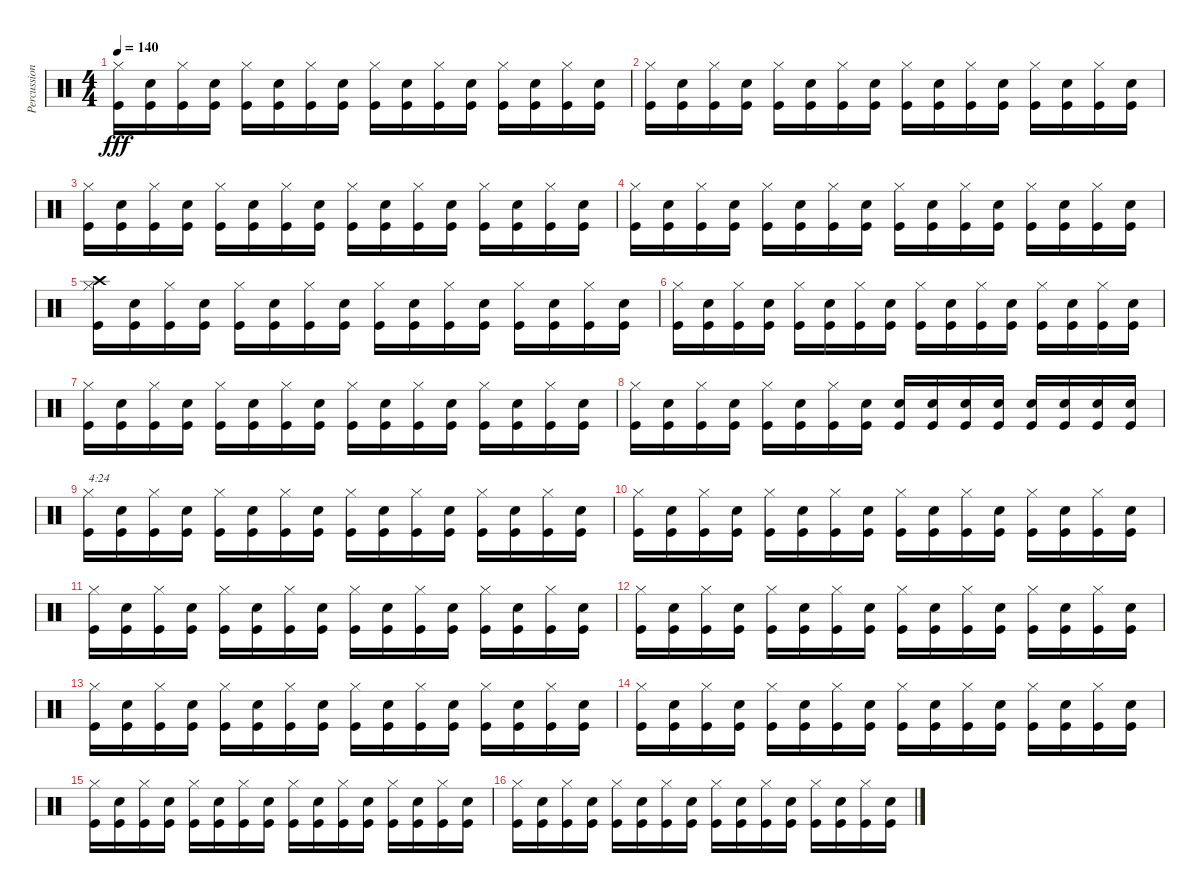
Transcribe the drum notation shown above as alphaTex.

\track ("Percussion" "Percussion") {instrument percussion}
\staff {score}
\articulation defaults
\ts (4 4)
\tempo 140
\clef neutral
\ks c
("Hi-Hat (closed)" "Kick (hit)").16{dy fff} ("Snare (hit) 2" "Kick (hit)").16 ("Hi-Hat (closed)" "Kick (hit)").16 ("Snare (hit) 2" "Kick (hit)").16 ("Hi-Hat (closed)" "Kick (hit)").16 ("Snare (hit) 2" "Kick (hit)").16 ("Hi-Hat (closed)" "Kick (hit)").16 ("Snare (hit) 2" "Kick (hit)").16 ("Hi-Hat (closed)" "Kick (hit)").16 ("Snare (hit) 2" "Kick (hit)").16 ("Hi-Hat (closed)" "Kick (hit)").16 ("Snare (hit) 2" "Kick (hit)").16 ("Hi-Hat (closed)" "Kick (hit)").16 ("Snare (hit) 2" "Kick (hit)").16 ("Hi-Hat (closed)" "Kick (hit)").16 ("Snare (hit) 2" "Kick (hit)").16 |
("Hi-Hat (closed)" "Kick (hit)").16 ("Snare (hit) 2" "Kick (hit)").16 ("Hi-Hat (closed)" "Kick (hit)").16 ("Snare (hit) 2" "Kick (hit)").16 ("Hi-Hat (closed)" "Kick (hit)").16 ("Snare (hit) 2" "Kick (hit)").16 ("Hi-Hat (closed)" "Kick (hit)").16 ("Snare (hit) 2" "Kick (hit)").16 ("Hi-Hat (closed)" "Kick (hit)").16 ("Snare (hit) 2" "Kick (hit)").16 ("Hi-Hat (closed)" "Kick (hit)").16 ("Snare (hit) 2" "Kick (hit)").16 ("Hi-Hat (closed)" "Kick (hit)").16 ("Snare (hit) 2" "Kick (hit)").16 ("Hi-Hat (closed)" "Kick (hit)").16 ("Snare (hit) 2" "Kick (hit)").16 |
("Hi-Hat (closed)" "Kick (hit)").16 ("Snare (hit) 2" "Kick (hit)").16 ("Hi-Hat (closed)" "Kick (hit)").16 ("Snare (hit) 2" "Kick (hit)").16 ("Hi-Hat (closed)" "Kick (hit)").16 ("Snare (hit) 2" "Kick (hit)").16 ("Hi-Hat (closed)" "Kick (hit)").16 ("Snare (hit) 2" "Kick (hit)").16 ("Hi-Hat (closed)" "Kick (hit)").16 ("Snare (hit) 2" "Kick (hit)").16 ("Hi-Hat (closed)" "Kick (hit)").16 ("Snare (hit) 2" "Kick (hit)").16 ("Hi-Hat (closed)" "Kick (hit)").16 ("Snare (hit) 2" "Kick (hit)").16 ("Hi-Hat (closed)" "Kick (hit)").16 ("Snare (hit) 2" "Kick (hit)").16 |
("Hi-Hat (closed)" "Kick (hit)").16 ("Snare (hit) 2" "Kick (hit)").16 ("Hi-Hat (closed)" "Kick (hit)").16 ("Snare (hit) 2" "Kick (hit)").16 ("Hi-Hat (closed)" "Kick (hit)").16 ("Snare (hit) 2" "Kick (hit)").16 ("Hi-Hat (closed)" "Kick (hit)").16 ("Snare (hit) 2" "Kick (hit)").16 ("Hi-Hat (closed)" "Kick (hit)").16 ("Snare (hit) 2" "Kick (hit)").16 ("Hi-Hat (closed)" "Kick (hit)").16 ("Snare (hit) 2" "Kick (hit)").16 ("Hi-Hat (closed)" "Kick (hit)").16 ("Snare (hit) 2" "Kick (hit)").16 ("Hi-Hat (closed)" "Kick (hit)").16 ("Snare (hit) 2" "Kick (hit)").16 |
("Crash high (hit)" "Hi-Hat (closed)" "Kick (hit)").16 ("Snare (hit) 2" "Kick (hit)").16 ("Hi-Hat (closed)" "Kick (hit)").16 ("Snare (hit) 2" "Kick (hit)").16 ("Hi-Hat (closed)" "Kick (hit)").16 ("Snare (hit) 2" "Kick (hit)").16 ("Hi-Hat (closed)" "Kick (hit)").16 ("Snare (hit) 2" "Kick (hit)").16 ("Hi-Hat (closed)" "Kick (hit)").16 ("Snare (hit) 2" "Kick (hit)").16 ("Hi-Hat (closed)" "Kick (hit)").16 ("Snare (hit) 2" "Kick (hit)").16 ("Hi-Hat (closed)" "Kick (hit)").16 ("Snare (hit) 2" "Kick (hit)").16 ("Hi-Hat (closed)" "Kick (hit)").16 ("Snare (hit) 2" "Kick (hit)").16 |
("Hi-Hat (closed)" "Kick (hit)").16 ("Snare (hit) 2" "Kick (hit)").16 ("Hi-Hat (closed)" "Kick (hit)").16 ("Snare (hit) 2" "Kick (hit)").16 ("Hi-Hat (closed)" "Kick (hit)").16 ("Snare (hit) 2" "Kick (hit)").16 ("Hi-Hat (closed)" "Kick (hit)").16 ("Snare (hit) 2" "Kick (hit)").16 ("Hi-Hat (closed)" "Kick (hit)").16 ("Snare (hit) 2" "Kick (hit)").16 ("Hi-Hat (closed)" "Kick (hit)").16 ("Snare (hit) 2" "Kick (hit)").16 ("Hi-Hat (closed)" "Kick (hit)").16 ("Snare (hit) 2" "Kick (hit)").16 ("Hi-Hat (closed)" "Kick (hit)").16 ("Snare (hit) 2" "Kick (hit)").16 |
("Hi-Hat (closed)" "Kick (hit)").16 ("Snare (hit) 2" "Kick (hit)").16 ("Hi-Hat (closed)" "Kick (hit)").16 ("Snare (hit) 2" "Kick (hit)").16 ("Hi-Hat (closed)" "Kick (hit)").16 ("Snare (hit) 2" "Kick (hit)").16 ("Hi-Hat (closed)" "Kick (hit)").16 ("Snare (hit) 2" "Kick (hit)").16 ("Hi-Hat (closed)" "Kick (hit)").16 ("Snare (hit) 2" "Kick (hit)").16 ("Hi-Hat (closed)" "Kick (hit)").16 ("Snare (hit) 2" "Kick (hit)").16 ("Hi-Hat (closed)" "Kick (hit)").16 ("Snare (hit) 2" "Kick (hit)").16 ("Hi-Hat (closed)" "Kick (hit)").16 ("Snare (hit) 2" "Kick (hit)").16 |
("Hi-Hat (closed)" "Kick (hit)").16 ("Snare (hit) 2" "Kick (hit)").16 ("Hi-Hat (closed)" "Kick (hit)").16 ("Snare (hit) 2" "Kick (hit)").16 ("Hi-Hat (closed)" "Kick (hit)").16 ("Snare (hit) 2" "Kick (hit)").16 ("Hi-Hat (closed)" "Kick (hit)").16 ("Snare (hit) 2" "Kick (hit)").16 ("Snare (hit) 2" "Kick (hit)").16 ("Snare (hit) 2" "Kick (hit)").16 ("Snare (hit) 2" "Kick (hit)").16 ("Snare (hit) 2" "Kick (hit)").16 ("Snare (hit) 2" "Kick (hit)").16 ("Snare (hit) 2" "Kick (hit)").16 ("Snare (hit) 2" "Kick (hit)").16 ("Snare (hit) 2" "Kick (hit)").16 |
("Hi-Hat (closed)" "Kick (hit)").16{txt "4:24"} ("Snare (hit) 2" "Kick (hit)").16 ("Hi-Hat (closed)" "Kick (hit)").16 ("Snare (hit) 2" "Kick (hit)").16 ("Hi-Hat (closed)" "Kick (hit)").16 ("Snare (hit) 2" "Kick (hit)").16 ("Hi-Hat (closed)" "Kick (hit)").16 ("Snare (hit) 2" "Kick (hit)").16 ("Hi-Hat (closed)" "Kick (hit)").16 ("Snare (hit) 2" "Kick (hit)").16 ("Hi-Hat (closed)" "Kick (hit)").16 ("Snare (hit) 2" "Kick (hit)").16 ("Hi-Hat (closed)" "Kick (hit)").16 ("Snare (hit) 2" "Kick (hit)").16 ("Hi-Hat (closed)" "Kick (hit)").16 ("Snare (hit) 2" "Kick (hit)").16 |
("Hi-Hat (closed)" "Kick (hit)").16 ("Snare (hit) 2" "Kick (hit)").16 ("Hi-Hat (closed)" "Kick (hit)").16 ("Snare (hit) 2" "Kick (hit)").16 ("Hi-Hat (closed)" "Kick (hit)").16 ("Snare (hit) 2" "Kick (hit)").16 ("Hi-Hat (closed)" "Kick (hit)").16 ("Snare (hit) 2" "Kick (hit)").16 ("Hi-Hat (closed)" "Kick (hit)").16 ("Snare (hit) 2" "Kick (hit)").16 ("Hi-Hat (closed)" "Kick (hit)").16 ("Snare (hit) 2" "Kick (hit)").16 ("Hi-Hat (closed)" "Kick (hit)").16 ("Snare (hit) 2" "Kick (hit)").16 ("Hi-Hat (closed)" "Kick (hit)").16 ("Snare (hit) 2" "Kick (hit)").16 |
("Hi-Hat (closed)" "Kick (hit)").16 ("Snare (hit) 2" "Kick (hit)").16 ("Hi-Hat (closed)" "Kick (hit)").16 ("Snare (hit) 2" "Kick (hit)").16 ("Hi-Hat (closed)" "Kick (hit)").16 ("Snare (hit) 2" "Kick (hit)").16 ("Hi-Hat (closed)" "Kick (hit)").16 ("Snare (hit) 2" "Kick (hit)").16 ("Hi-Hat (closed)" "Kick (hit)").16 ("Snare (hit) 2" "Kick (hit)").16 ("Hi-Hat (closed)" "Kick (hit)").16 ("Snare (hit) 2" "Kick (hit)").16 ("Hi-Hat (closed)" "Kick (hit)").16 ("Snare (hit) 2" "Kick (hit)").16 ("Hi-Hat (closed)" "Kick (hit)").16 ("Snare (hit) 2" "Kick (hit)").16 |
("Hi-Hat (closed)" "Kick (hit)").16 ("Snare (hit) 2" "Kick (hit)").16 ("Hi-Hat (closed)" "Kick (hit)").16 ("Snare (hit) 2" "Kick (hit)").16 ("Hi-Hat (closed)" "Kick (hit)").16 ("Snare (hit) 2" "Kick (hit)").16 ("Hi-Hat (closed)" "Kick (hit)").16 ("Snare (hit) 2" "Kick (hit)").16 ("Hi-Hat (closed)" "Kick (hit)").16 ("Snare (hit) 2" "Kick (hit)").16 ("Hi-Hat (closed)" "Kick (hit)").16 ("Snare (hit) 2" "Kick (hit)").16 ("Hi-Hat (closed)" "Kick (hit)").16 ("Snare (hit) 2" "Kick (hit)").16 ("Hi-Hat (closed)" "Kick (hit)").16 ("Snare (hit) 2" "Kick (hit)").16 |
("Hi-Hat (closed)" "Kick (hit)").16 ("Snare (hit) 2" "Kick (hit)").16 ("Hi-Hat (closed)" "Kick (hit)").16 ("Snare (hit) 2" "Kick (hit)").16 ("Hi-Hat (closed)" "Kick (hit)").16 ("Snare (hit) 2" "Kick (hit)").16 ("Hi-Hat (closed)" "Kick (hit)").16 ("Snare (hit) 2" "Kick (hit)").16 ("Hi-Hat (closed)" "Kick (hit)").16 ("Snare (hit) 2" "Kick (hit)").16 ("Hi-Hat (closed)" "Kick (hit)").16 ("Snare (hit) 2" "Kick (hit)").16 ("Hi-Hat (closed)" "Kick (hit)").16 ("Snare (hit) 2" "Kick (hit)").16 ("Hi-Hat (closed)" "Kick (hit)").16 ("Snare (hit) 2" "Kick (hit)").16 |
("Hi-Hat (closed)" "Kick (hit)").16 ("Snare (hit) 2" "Kick (hit)").16 ("Hi-Hat (closed)" "Kick (hit)").16 ("Snare (hit) 2" "Kick (hit)").16 ("Hi-Hat (closed)" "Kick (hit)").16 ("Snare (hit) 2" "Kick (hit)").16 ("Hi-Hat (closed)" "Kick (hit)").16 ("Snare (hit) 2" "Kick (hit)").16 ("Hi-Hat (closed)" "Kick (hit)").16 ("Snare (hit) 2" "Kick (hit)").16 ("Hi-Hat (closed)" "Kick (hit)").16 ("Snare (hit) 2" "Kick (hit)").16 ("Hi-Hat (closed)" "Kick (hit)").16 ("Snare (hit) 2" "Kick (hit)").16 ("Hi-Hat (closed)" "Kick (hit)").16 ("Snare (hit) 2" "Kick (hit)").16 |
("Hi-Hat (closed)" "Kick (hit)").16 ("Snare (hit) 2" "Kick (hit)").16 ("Hi-Hat (closed)" "Kick (hit)").16 ("Snare (hit) 2" "Kick (hit)").16 ("Hi-Hat (closed)" "Kick (hit)").16 ("Snare (hit) 2" "Kick (hit)").16 ("Hi-Hat (closed)" "Kick (hit)").16 ("Snare (hit) 2" "Kick (hit)").16 ("Hi-Hat (closed)" "Kick (hit)").16 ("Snare (hit) 2" "Kick (hit)").16 ("Hi-Hat (closed)" "Kick (hit)").16 ("Snare (hit) 2" "Kick (hit)").16 ("Hi-Hat (closed)" "Kick (hit)").16 ("Snare (hit) 2" "Kick (hit)").16 ("Hi-Hat (closed)" "Kick (hit)").16 ("Snare (hit) 2" "Kick (hit)").16 |
("Hi-Hat (closed)" "Kick (hit)").16 ("Snare (hit) 2" "Kick (hit)").16 ("Hi-Hat (closed)" "Kick (hit)").16 ("Snare (hit) 2" "Kick (hit)").16 ("Hi-Hat (closed)" "Kick (hit)").16 ("Snare (hit) 2" "Kick (hit)").16 ("Hi-Hat (closed)" "Kick (hit)").16 ("Snare (hit) 2" "Kick (hit)").16 ("Hi-Hat (closed)" "Kick (hit)").16 ("Snare (hit) 2" "Kick (hit)").16 ("Hi-Hat (closed)" "Kick (hit)").16 ("Snare (hit) 2" "Kick (hit)").16 ("Hi-Hat (closed)" "Kick (hit)").16 ("Snare (hit) 2" "Kick (hit)").16 ("Hi-Hat (closed)" "Kick (hit)").16 ("Snare (hit) 2" "Kick (hit)").16
